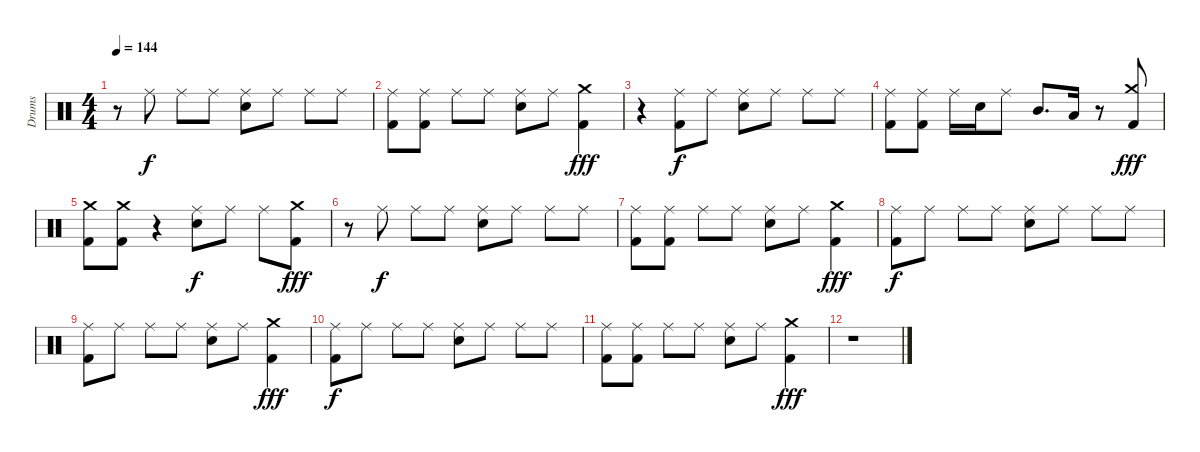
\bracketExtendMode groupsimilarinstruments
\otherSystemsTrackNameOrientation horizontal
\track ("Drumkit" "Drums") {instrument percussion}
\staff {score}
\articulation defaults
\ts (4 4)
\tempo 144
\clef neutral
\ks c
r.8{dy fff beam Down} "Ride (middle)".8{dy f beam Down} "Ride (middle)".8{beam Down} "Ride (middle)".8{beam Down} ("Ride (middle)" "Snare (hit) 2").8{beam Down} "Ride (middle)".8{beam Down} "Ride (middle)".8{beam Down} "Ride (middle)".8{beam Down} |
("Ride (middle)" "Kick (hit) 2").8{beam Down} ("Ride (middle)" "Kick (hit) 2").8{beam Down} "Ride (middle)".8{beam Down} "Ride (middle)".8{beam Down} ("Ride (middle)" "Snare (hit) 2").8{beam Down} "Ride (middle)".8{beam Down} ("Crash medium (hit)" "Kick (hit) 2").4{dy fff beam Down} |
r.4{beam Down} ("Ride (middle)" "Kick (hit) 2").8{dy f beam Down} "Ride (middle)".8{beam Down} ("Ride (middle)" "Snare (hit) 2").8{beam Down} "Ride (middle)".8{beam Down} "Ride (middle)".8{beam Down} "Ride (middle)".8{beam Down} |
("Ride (middle)" "Kick (hit) 2").8{beam Down} ("Ride (middle)" "Kick (hit) 2").8{beam Down} "Ride (middle)".16{beam Down} "Snare (hit) 2".16{beam Down} "Ride (middle)".8{beam Down} "Mid Tom (hit)".8{d beam Up} "Low Tom (hit)".16{beam Up} r.8{beam Up} ("Crash medium (hit)" "Kick (hit) 2").8{dy fff beam Down} |
("Crash medium (hit)" "Kick (hit) 2").8{beam Down} ("Crash medium (hit)" "Kick (hit) 2").8{beam Down} r.4{beam Down} ("Ride (middle)" "Snare (hit) 2").8{dy f beam Down} "Ride (middle)".8{beam Down} "Ride (middle)".8{beam Down} ("Crash medium (hit)" "Kick (hit) 2").8{dy fff beam Down} |
r.8{beam Down} "Ride (middle)".8{dy f beam Down} "Ride (middle)".8{beam Down} "Ride (middle)".8{beam Down} ("Ride (middle)" "Snare (hit) 2").8{beam Down} "Ride (middle)".8{beam Down} "Ride (middle)".8{beam Down} "Ride (middle)".8{beam Down} |
("Ride (middle)" "Kick (hit) 2").8{beam Down} ("Ride (middle)" "Kick (hit) 2").8{beam Down} "Ride (middle)".8{beam Down} "Ride (middle)".8{beam Down} ("Ride (middle)" "Snare (hit) 2").8{beam Down} "Ride (middle)".8{beam Down} ("Crash medium (hit)" "Kick (hit) 2").4{dy fff beam Down} |
("Ride (middle)" "Kick (hit) 2").8{dy f beam Down} "Ride (middle)".8{beam Down} "Ride (middle)".8{beam Down} "Ride (middle)".8{beam Down} ("Ride (middle)" "Snare (hit) 2").8{beam Down} "Ride (middle)".8{beam Down} "Ride (middle)".8{beam Down} "Ride (middle)".8{beam Down} |
("Ride (middle)" "Kick (hit) 2").8{beam Down} "Ride (middle)".8{beam Down} "Ride (middle)".8{beam Down} "Ride (middle)".8{beam Down} ("Ride (middle)" "Snare (hit) 2").8{beam Down} "Ride (middle)".8{beam Down} ("Crash medium (hit)" "Kick (hit) 2").4{dy fff beam Down} |
("Ride (middle)" "Kick (hit) 2").8{dy f beam Down} "Ride (middle)".8{beam Down} "Ride (middle)".8{beam Down} "Ride (middle)".8{beam Down} ("Ride (middle)" "Snare (hit) 2").8{beam Down} "Ride (middle)".8{beam Down} "Ride (middle)".8{beam Down} "Ride (middle)".8{beam Down} |
("Ride (middle)" "Kick (hit) 2").8{beam Down} ("Ride (middle)" "Kick (hit) 2").8{beam Down} "Ride (middle)".8{beam Down} "Ride (middle)".8{beam Down} ("Ride (middle)" "Snare (hit) 2").8{beam Down} "Ride (middle)".8{beam Down} ("Crash medium (hit)" "Kick (hit) 2").4{dy fff beam Down} |
r.1{beam Down}
